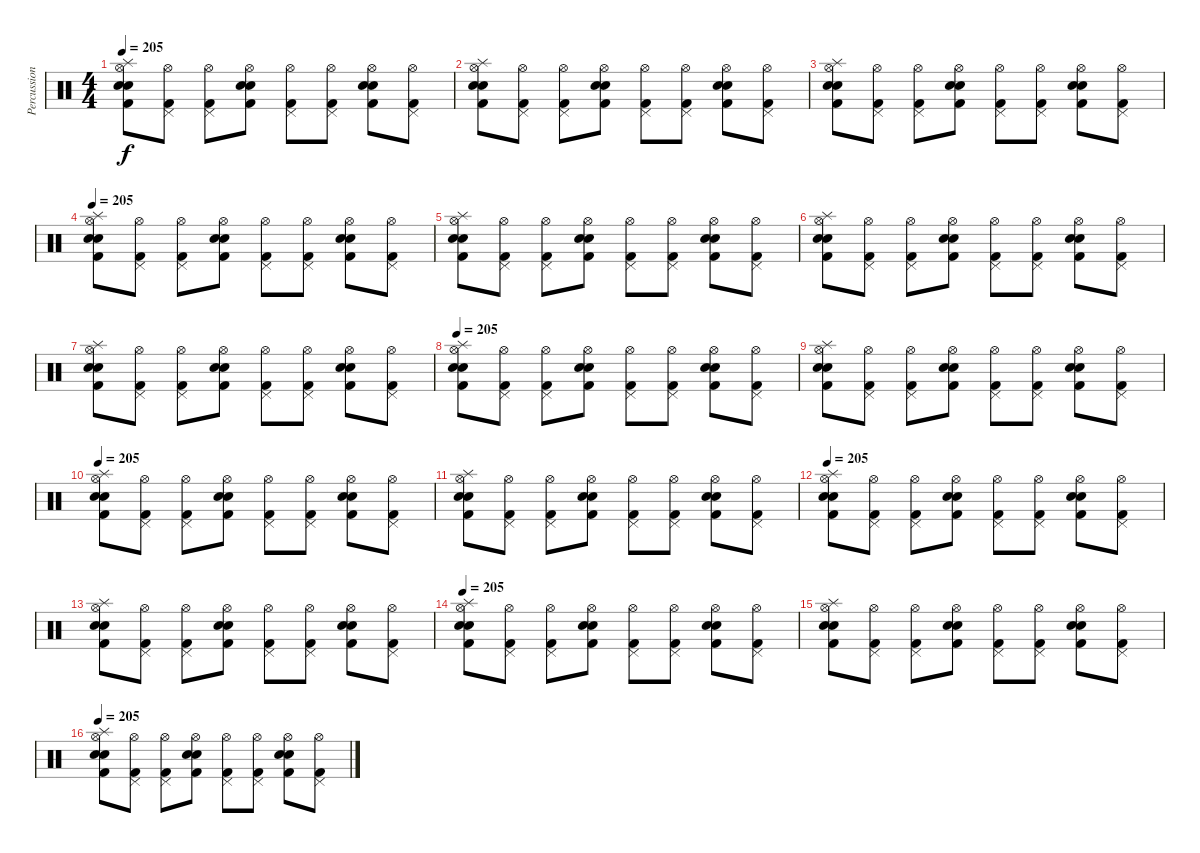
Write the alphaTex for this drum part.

\track ("Percussions" "Percussion") {instrument percussion}
\staff {score}
\articulation defaults
\ts (4 4)
\tempo 205
\clef neutral
\ks c
("Splash (hit)" "Hi-Hat (open)" "Kick (hit) 2" "Snare (hit) 2" "Electric Snare (hit)").8{dy f} ("Hi-Hat (open)" "Pedal Hi-Hat (hit)" "Kick (hit) 2").8 ("Hi-Hat (open)" "Pedal Hi-Hat (hit)" "Kick (hit) 2").8 ("Hi-Hat (open)" "Kick (hit) 2" "Snare (hit) 2" "Electric Snare (hit)").8 ("Hi-Hat (open)" "Pedal Hi-Hat (hit)" "Kick (hit) 2").8 ("Hi-Hat (open)" "Pedal Hi-Hat (hit)" "Kick (hit) 2").8 ("Hi-Hat (open)" "Kick (hit) 2" "Snare (hit) 2" "Electric Snare (hit)").8 ("Hi-Hat (open)" "Pedal Hi-Hat (hit)" "Kick (hit) 2").8 |
("Splash (hit)" "Hi-Hat (open)" "Kick (hit) 2" "Snare (hit) 2" "Electric Snare (hit)").8 ("Hi-Hat (open)" "Pedal Hi-Hat (hit)" "Kick (hit) 2").8 ("Hi-Hat (open)" "Pedal Hi-Hat (hit)" "Kick (hit) 2").8 ("Hi-Hat (open)" "Kick (hit) 2" "Snare (hit) 2" "Electric Snare (hit)").8 ("Hi-Hat (open)" "Pedal Hi-Hat (hit)" "Kick (hit) 2").8 ("Hi-Hat (open)" "Pedal Hi-Hat (hit)" "Kick (hit) 2").8 ("Hi-Hat (open)" "Kick (hit) 2" "Snare (hit) 2" "Electric Snare (hit)").8 ("Hi-Hat (open)" "Pedal Hi-Hat (hit)" "Kick (hit) 2").8 |
("Splash (hit)" "Hi-Hat (open)" "Kick (hit) 2" "Snare (hit) 2" "Electric Snare (hit)").8 ("Hi-Hat (open)" "Pedal Hi-Hat (hit)" "Kick (hit) 2").8 ("Hi-Hat (open)" "Pedal Hi-Hat (hit)" "Kick (hit) 2").8 ("Hi-Hat (open)" "Kick (hit) 2" "Snare (hit) 2" "Electric Snare (hit)").8 ("Hi-Hat (open)" "Pedal Hi-Hat (hit)" "Kick (hit) 2").8 ("Hi-Hat (open)" "Pedal Hi-Hat (hit)" "Kick (hit) 2").8 ("Hi-Hat (open)" "Kick (hit) 2" "Snare (hit) 2" "Electric Snare (hit)").8 ("Hi-Hat (open)" "Pedal Hi-Hat (hit)" "Kick (hit) 2").8 |
\tempo 205
("Splash (hit)" "Hi-Hat (open)" "Kick (hit) 2" "Snare (hit) 2" "Electric Snare (hit)").8 ("Hi-Hat (open)" "Pedal Hi-Hat (hit)" "Kick (hit) 2").8 ("Hi-Hat (open)" "Pedal Hi-Hat (hit)" "Kick (hit) 2").8 ("Hi-Hat (open)" "Kick (hit) 2" "Snare (hit) 2" "Electric Snare (hit)").8 ("Hi-Hat (open)" "Pedal Hi-Hat (hit)" "Kick (hit) 2").8 ("Hi-Hat (open)" "Pedal Hi-Hat (hit)" "Kick (hit) 2").8 ("Hi-Hat (open)" "Kick (hit) 2" "Snare (hit) 2" "Electric Snare (hit)").8 ("Hi-Hat (open)" "Pedal Hi-Hat (hit)" "Kick (hit) 2").8 |
("Splash (hit)" "Hi-Hat (open)" "Kick (hit) 2" "Snare (hit) 2" "Electric Snare (hit)").8 ("Hi-Hat (open)" "Pedal Hi-Hat (hit)" "Kick (hit) 2").8 ("Hi-Hat (open)" "Pedal Hi-Hat (hit)" "Kick (hit) 2").8 ("Hi-Hat (open)" "Kick (hit) 2" "Snare (hit) 2" "Electric Snare (hit)").8 ("Hi-Hat (open)" "Pedal Hi-Hat (hit)" "Kick (hit) 2").8 ("Hi-Hat (open)" "Pedal Hi-Hat (hit)" "Kick (hit) 2").8 ("Hi-Hat (open)" "Kick (hit) 2" "Snare (hit) 2" "Electric Snare (hit)").8 ("Hi-Hat (open)" "Pedal Hi-Hat (hit)" "Kick (hit) 2").8 |
("Splash (hit)" "Hi-Hat (open)" "Kick (hit) 2" "Snare (hit) 2" "Electric Snare (hit)").8 ("Hi-Hat (open)" "Pedal Hi-Hat (hit)" "Kick (hit) 2").8 ("Hi-Hat (open)" "Pedal Hi-Hat (hit)" "Kick (hit) 2").8 ("Hi-Hat (open)" "Kick (hit) 2" "Snare (hit) 2" "Electric Snare (hit)").8 ("Hi-Hat (open)" "Pedal Hi-Hat (hit)" "Kick (hit) 2").8 ("Hi-Hat (open)" "Pedal Hi-Hat (hit)" "Kick (hit) 2").8 ("Hi-Hat (open)" "Kick (hit) 2" "Snare (hit) 2" "Electric Snare (hit)").8 ("Hi-Hat (open)" "Pedal Hi-Hat (hit)" "Kick (hit) 2").8 |
("Splash (hit)" "Hi-Hat (open)" "Kick (hit) 2" "Snare (hit) 2" "Electric Snare (hit)").8 ("Hi-Hat (open)" "Pedal Hi-Hat (hit)" "Kick (hit) 2").8 ("Hi-Hat (open)" "Pedal Hi-Hat (hit)" "Kick (hit) 2").8 ("Hi-Hat (open)" "Kick (hit) 2" "Snare (hit) 2" "Electric Snare (hit)").8 ("Hi-Hat (open)" "Pedal Hi-Hat (hit)" "Kick (hit) 2").8 ("Hi-Hat (open)" "Pedal Hi-Hat (hit)" "Kick (hit) 2").8 ("Hi-Hat (open)" "Kick (hit) 2" "Snare (hit) 2" "Electric Snare (hit)").8 ("Hi-Hat (open)" "Pedal Hi-Hat (hit)" "Kick (hit) 2").8 |
\tempo 205
("Splash (hit)" "Hi-Hat (open)" "Kick (hit) 2" "Snare (hit) 2" "Electric Snare (hit)").8 ("Hi-Hat (open)" "Pedal Hi-Hat (hit)" "Kick (hit) 2").8 ("Hi-Hat (open)" "Pedal Hi-Hat (hit)" "Kick (hit) 2").8 ("Hi-Hat (open)" "Kick (hit) 2" "Snare (hit) 2" "Electric Snare (hit)").8 ("Hi-Hat (open)" "Pedal Hi-Hat (hit)" "Kick (hit) 2").8 ("Hi-Hat (open)" "Pedal Hi-Hat (hit)" "Kick (hit) 2").8 ("Hi-Hat (open)" "Kick (hit) 2" "Snare (hit) 2" "Electric Snare (hit)").8 ("Hi-Hat (open)" "Pedal Hi-Hat (hit)" "Kick (hit) 2").8 |
("Splash (hit)" "Hi-Hat (open)" "Kick (hit) 2" "Snare (hit) 2" "Electric Snare (hit)").8 ("Hi-Hat (open)" "Pedal Hi-Hat (hit)" "Kick (hit) 2").8 ("Hi-Hat (open)" "Pedal Hi-Hat (hit)" "Kick (hit) 2").8 ("Hi-Hat (open)" "Kick (hit) 2" "Snare (hit) 2" "Electric Snare (hit)").8 ("Hi-Hat (open)" "Pedal Hi-Hat (hit)" "Kick (hit) 2").8 ("Hi-Hat (open)" "Pedal Hi-Hat (hit)" "Kick (hit) 2").8 ("Hi-Hat (open)" "Kick (hit) 2" "Snare (hit) 2" "Electric Snare (hit)").8 ("Hi-Hat (open)" "Pedal Hi-Hat (hit)" "Kick (hit) 2").8 |
\tempo 205
("Splash (hit)" "Hi-Hat (open)" "Kick (hit) 2" "Snare (hit) 2" "Electric Snare (hit)").8 ("Hi-Hat (open)" "Pedal Hi-Hat (hit)" "Kick (hit) 2").8 ("Hi-Hat (open)" "Pedal Hi-Hat (hit)" "Kick (hit) 2").8 ("Hi-Hat (open)" "Kick (hit) 2" "Snare (hit) 2" "Electric Snare (hit)").8 ("Hi-Hat (open)" "Pedal Hi-Hat (hit)" "Kick (hit) 2").8 ("Hi-Hat (open)" "Pedal Hi-Hat (hit)" "Kick (hit) 2").8 ("Hi-Hat (open)" "Kick (hit) 2" "Snare (hit) 2" "Electric Snare (hit)").8 ("Hi-Hat (open)" "Pedal Hi-Hat (hit)" "Kick (hit) 2").8 |
("Splash (hit)" "Hi-Hat (open)" "Kick (hit) 2" "Snare (hit) 2" "Electric Snare (hit)").8 ("Hi-Hat (open)" "Pedal Hi-Hat (hit)" "Kick (hit) 2").8 ("Hi-Hat (open)" "Pedal Hi-Hat (hit)" "Kick (hit) 2").8 ("Hi-Hat (open)" "Kick (hit) 2" "Snare (hit) 2" "Electric Snare (hit)").8 ("Hi-Hat (open)" "Pedal Hi-Hat (hit)" "Kick (hit) 2").8 ("Hi-Hat (open)" "Pedal Hi-Hat (hit)" "Kick (hit) 2").8 ("Hi-Hat (open)" "Kick (hit) 2" "Snare (hit) 2" "Electric Snare (hit)").8 ("Hi-Hat (open)" "Pedal Hi-Hat (hit)" "Kick (hit) 2").8 |
\tempo 205
("Splash (hit)" "Hi-Hat (open)" "Kick (hit) 2" "Snare (hit) 2" "Electric Snare (hit)").8 ("Hi-Hat (open)" "Pedal Hi-Hat (hit)" "Kick (hit) 2").8 ("Hi-Hat (open)" "Pedal Hi-Hat (hit)" "Kick (hit) 2").8 ("Hi-Hat (open)" "Kick (hit) 2" "Snare (hit) 2" "Electric Snare (hit)").8 ("Hi-Hat (open)" "Pedal Hi-Hat (hit)" "Kick (hit) 2").8 ("Hi-Hat (open)" "Pedal Hi-Hat (hit)" "Kick (hit) 2").8 ("Hi-Hat (open)" "Kick (hit) 2" "Snare (hit) 2" "Electric Snare (hit)").8 ("Hi-Hat (open)" "Pedal Hi-Hat (hit)" "Kick (hit) 2").8 |
("Splash (hit)" "Hi-Hat (open)" "Kick (hit) 2" "Snare (hit) 2" "Electric Snare (hit)").8 ("Hi-Hat (open)" "Pedal Hi-Hat (hit)" "Kick (hit) 2").8 ("Hi-Hat (open)" "Pedal Hi-Hat (hit)" "Kick (hit) 2").8 ("Hi-Hat (open)" "Kick (hit) 2" "Snare (hit) 2" "Electric Snare (hit)").8 ("Hi-Hat (open)" "Pedal Hi-Hat (hit)" "Kick (hit) 2").8 ("Hi-Hat (open)" "Pedal Hi-Hat (hit)" "Kick (hit) 2").8 ("Hi-Hat (open)" "Kick (hit) 2" "Snare (hit) 2" "Electric Snare (hit)").8 ("Hi-Hat (open)" "Pedal Hi-Hat (hit)" "Kick (hit) 2").8 |
\tempo 205
("Splash (hit)" "Hi-Hat (open)" "Kick (hit) 2" "Snare (hit) 2" "Electric Snare (hit)").8 ("Hi-Hat (open)" "Pedal Hi-Hat (hit)" "Kick (hit) 2").8 ("Hi-Hat (open)" "Pedal Hi-Hat (hit)" "Kick (hit) 2").8 ("Hi-Hat (open)" "Kick (hit) 2" "Snare (hit) 2" "Electric Snare (hit)").8 ("Hi-Hat (open)" "Pedal Hi-Hat (hit)" "Kick (hit) 2").8 ("Hi-Hat (open)" "Pedal Hi-Hat (hit)" "Kick (hit) 2").8 ("Hi-Hat (open)" "Kick (hit) 2" "Snare (hit) 2" "Electric Snare (hit)").8 ("Hi-Hat (open)" "Pedal Hi-Hat (hit)" "Kick (hit) 2").8 |
("Splash (hit)" "Hi-Hat (open)" "Kick (hit) 2" "Snare (hit) 2" "Electric Snare (hit)").8 ("Hi-Hat (open)" "Pedal Hi-Hat (hit)" "Kick (hit) 2").8 ("Hi-Hat (open)" "Pedal Hi-Hat (hit)" "Kick (hit) 2").8 ("Hi-Hat (open)" "Kick (hit) 2" "Snare (hit) 2" "Electric Snare (hit)").8 ("Hi-Hat (open)" "Pedal Hi-Hat (hit)" "Kick (hit) 2").8 ("Hi-Hat (open)" "Pedal Hi-Hat (hit)" "Kick (hit) 2").8 ("Hi-Hat (open)" "Kick (hit) 2" "Snare (hit) 2" "Electric Snare (hit)").8 ("Hi-Hat (open)" "Pedal Hi-Hat (hit)" "Kick (hit) 2").8 |
\tempo 205
("Splash (hit)" "Hi-Hat (open)" "Kick (hit) 2" "Snare (hit) 2" "Electric Snare (hit)").8 ("Hi-Hat (open)" "Pedal Hi-Hat (hit)" "Kick (hit) 2").8 ("Hi-Hat (open)" "Pedal Hi-Hat (hit)" "Kick (hit) 2").8 ("Hi-Hat (open)" "Kick (hit) 2" "Snare (hit) 2" "Electric Snare (hit)").8 ("Hi-Hat (open)" "Pedal Hi-Hat (hit)" "Kick (hit) 2").8 ("Hi-Hat (open)" "Pedal Hi-Hat (hit)" "Kick (hit) 2").8 ("Hi-Hat (open)" "Kick (hit) 2" "Snare (hit) 2" "Electric Snare (hit)").8 ("Hi-Hat (open)" "Pedal Hi-Hat (hit)" "Kick (hit) 2").8
